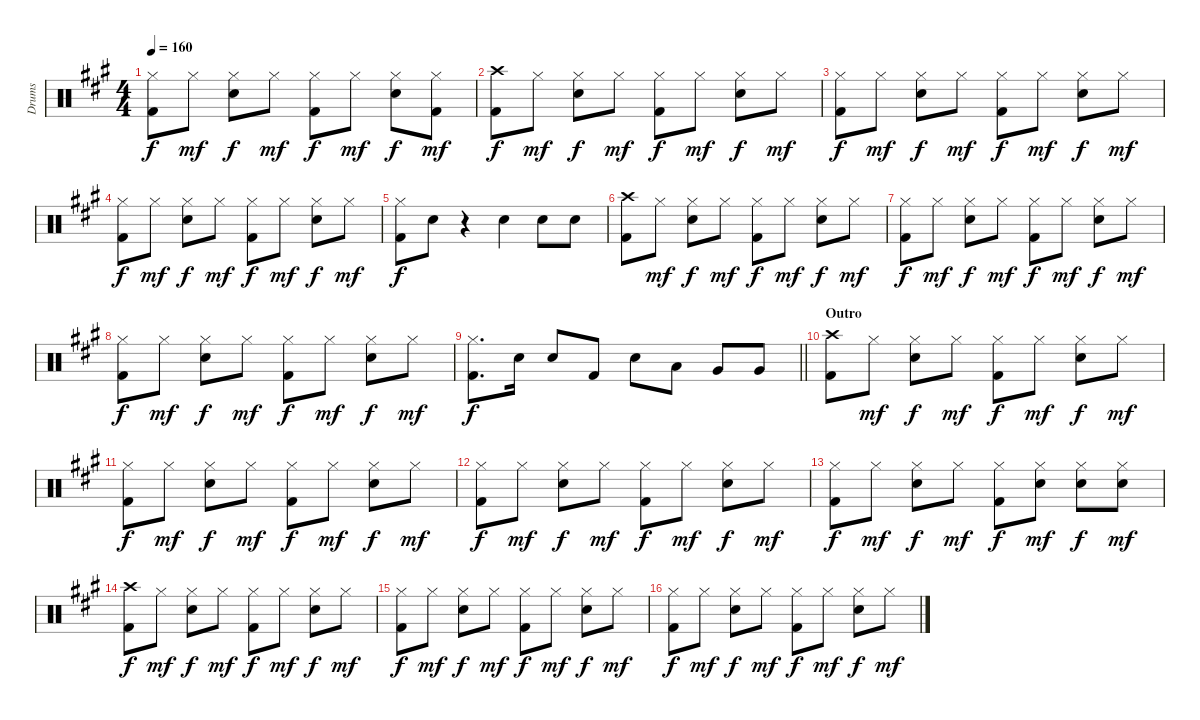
\track ("Drums" "Drums") {instrument percussion}
\staff {score}
\articulation defaults
\ts (4 4)
\tempo 160
\clef neutral
\ks a
("Hi-Hat (closed)" "Kick (hit) 2").8{dy f} "Hi-Hat (closed)".8{dy mf} ("Hi-Hat (closed)" "Electric Snare (hit)").8{dy f} "Hi-Hat (closed)".8{dy mf} ("Hi-Hat (closed)" "Kick (hit) 2").8{dy f} "Hi-Hat (closed)".8{dy mf} ("Hi-Hat (closed)" "Electric Snare (hit)").8{dy f} ("Hi-Hat (closed)" "Kick (hit) 2").8{dy mf} |
("Crash high (hit)" "Kick (hit) 2").8{dy f} "Hi-Hat (closed)".8{dy mf} ("Hi-Hat (closed)" "Electric Snare (hit)").8{dy f} "Hi-Hat (closed)".8{dy mf} ("Hi-Hat (closed)" "Kick (hit) 2").8{dy f} "Hi-Hat (closed)".8{dy mf} ("Hi-Hat (closed)" "Electric Snare (hit)").8{dy f} "Hi-Hat (closed)".8{dy mf} |
("Hi-Hat (closed)" "Kick (hit) 2").8{dy f} "Hi-Hat (closed)".8{dy mf} ("Hi-Hat (closed)" "Electric Snare (hit)").8{dy f} "Hi-Hat (closed)".8{dy mf} ("Hi-Hat (closed)" "Kick (hit) 2").8{dy f} "Hi-Hat (closed)".8{dy mf} ("Hi-Hat (closed)" "Electric Snare (hit)").8{dy f} "Hi-Hat (closed)".8{dy mf} |
("Hi-Hat (closed)" "Kick (hit) 2").8{dy f} "Hi-Hat (closed)".8{dy mf} ("Hi-Hat (closed)" "Electric Snare (hit)").8{dy f} "Hi-Hat (closed)".8{dy mf} ("Hi-Hat (closed)" "Kick (hit) 2").8{dy f} "Hi-Hat (closed)".8{dy mf} ("Hi-Hat (closed)" "Electric Snare (hit)").8{dy f} "Hi-Hat (closed)".8{dy mf} |
("Hi-Hat (closed)" "Kick (hit) 2").8{dy f} "Electric Snare (hit)".8 r.4 "Electric Snare (hit)".4 "Electric Snare (hit)".8 "Electric Snare (hit)".8 |
("Crash high (hit)" "Kick (hit) 2").8 "Hi-Hat (closed)".8{dy mf} ("Hi-Hat (closed)" "Electric Snare (hit)").8{dy f} "Hi-Hat (closed)".8{dy mf} ("Hi-Hat (closed)" "Kick (hit) 2").8{dy f} "Hi-Hat (closed)".8{dy mf} ("Hi-Hat (closed)" "Electric Snare (hit)").8{dy f} "Hi-Hat (closed)".8{dy mf} |
("Hi-Hat (closed)" "Kick (hit) 2").8{dy f} "Hi-Hat (closed)".8{dy mf} ("Hi-Hat (closed)" "Electric Snare (hit)").8{dy f} "Hi-Hat (closed)".8{dy mf} ("Hi-Hat (closed)" "Kick (hit) 2").8{dy f} "Hi-Hat (closed)".8{dy mf} ("Hi-Hat (closed)" "Electric Snare (hit)").8{dy f} "Hi-Hat (closed)".8{dy mf} |
("Hi-Hat (closed)" "Kick (hit) 2").8{dy f} "Hi-Hat (closed)".8{dy mf} ("Hi-Hat (closed)" "Electric Snare (hit)").8{dy f} "Hi-Hat (closed)".8{dy mf} ("Hi-Hat (closed)" "Kick (hit) 2").8{dy f} "Hi-Hat (closed)".8{dy mf} ("Hi-Hat (closed)" "Electric Snare (hit)").8{dy f} "Hi-Hat (closed)".8{dy mf} |
\barLineRight lightlight
("Hi-Hat (closed)" "Kick (hit) 2").8{d dy f} "Electric Snare (hit)".16 "Electric Snare (hit)".8 "Kick (hit) 2".8 "Electric Snare (hit)".8 "Low Tom (hit)".8 "Very Low Tom (hit)".8 "Very Low Tom (hit)".8 |
\section ("" "Outro")
("Crash high (hit)" "Kick (hit) 2").8 "Hi-Hat (closed)".8{dy mf} ("Hi-Hat (closed)" "Electric Snare (hit)").8{dy f} "Hi-Hat (closed)".8{dy mf} ("Hi-Hat (closed)" "Kick (hit) 2").8{dy f} "Hi-Hat (closed)".8{dy mf} ("Hi-Hat (closed)" "Electric Snare (hit)").8{dy f} "Hi-Hat (closed)".8{dy mf} |
("Hi-Hat (closed)" "Kick (hit) 2").8{dy f} "Hi-Hat (closed)".8{dy mf} ("Hi-Hat (closed)" "Electric Snare (hit)").8{dy f} "Hi-Hat (closed)".8{dy mf} ("Hi-Hat (closed)" "Kick (hit) 2").8{dy f} "Hi-Hat (closed)".8{dy mf} ("Hi-Hat (closed)" "Electric Snare (hit)").8{dy f} "Hi-Hat (closed)".8{dy mf} |
("Hi-Hat (closed)" "Kick (hit) 2").8{dy f} "Hi-Hat (closed)".8{dy mf} ("Hi-Hat (closed)" "Electric Snare (hit)").8{dy f} "Hi-Hat (closed)".8{dy mf} ("Hi-Hat (closed)" "Kick (hit) 2").8{dy f} "Hi-Hat (closed)".8{dy mf} ("Hi-Hat (closed)" "Electric Snare (hit)").8{dy f} "Hi-Hat (closed)".8{dy mf} |
("Hi-Hat (closed)" "Kick (hit) 2").8{dy f} "Hi-Hat (closed)".8{dy mf} ("Hi-Hat (closed)" "Electric Snare (hit)").8{dy f} "Hi-Hat (closed)".8{dy mf} ("Hi-Hat (closed)" "Kick (hit) 2").8{dy f} ("Hi-Hat (closed)" "Electric Snare (hit)").8{dy mf} ("Hi-Hat (closed)" "Electric Snare (hit)").8{dy f} ("Hi-Hat (closed)" "Electric Snare (hit)").8{dy mf} |
("Crash high (hit)" "Kick (hit) 2").8{dy f} "Hi-Hat (closed)".8{dy mf} ("Hi-Hat (closed)" "Electric Snare (hit)").8{dy f} "Hi-Hat (closed)".8{dy mf} ("Hi-Hat (closed)" "Kick (hit) 2").8{dy f} "Hi-Hat (closed)".8{dy mf} ("Hi-Hat (closed)" "Electric Snare (hit)").8{dy f} "Hi-Hat (closed)".8{dy mf} |
("Hi-Hat (closed)" "Kick (hit) 2").8{dy f} "Hi-Hat (closed)".8{dy mf} ("Hi-Hat (closed)" "Electric Snare (hit)").8{dy f} "Hi-Hat (closed)".8{dy mf} ("Hi-Hat (closed)" "Kick (hit) 2").8{dy f} "Hi-Hat (closed)".8{dy mf} ("Hi-Hat (closed)" "Electric Snare (hit)").8{dy f} "Hi-Hat (closed)".8{dy mf} |
("Hi-Hat (closed)" "Kick (hit) 2").8{dy f} "Hi-Hat (closed)".8{dy mf} ("Hi-Hat (closed)" "Electric Snare (hit)").8{dy f} "Hi-Hat (closed)".8{dy mf} ("Hi-Hat (closed)" "Kick (hit) 2").8{dy f} "Hi-Hat (closed)".8{dy mf} ("Hi-Hat (closed)" "Electric Snare (hit)").8{dy f} "Hi-Hat (closed)".8{dy mf}
